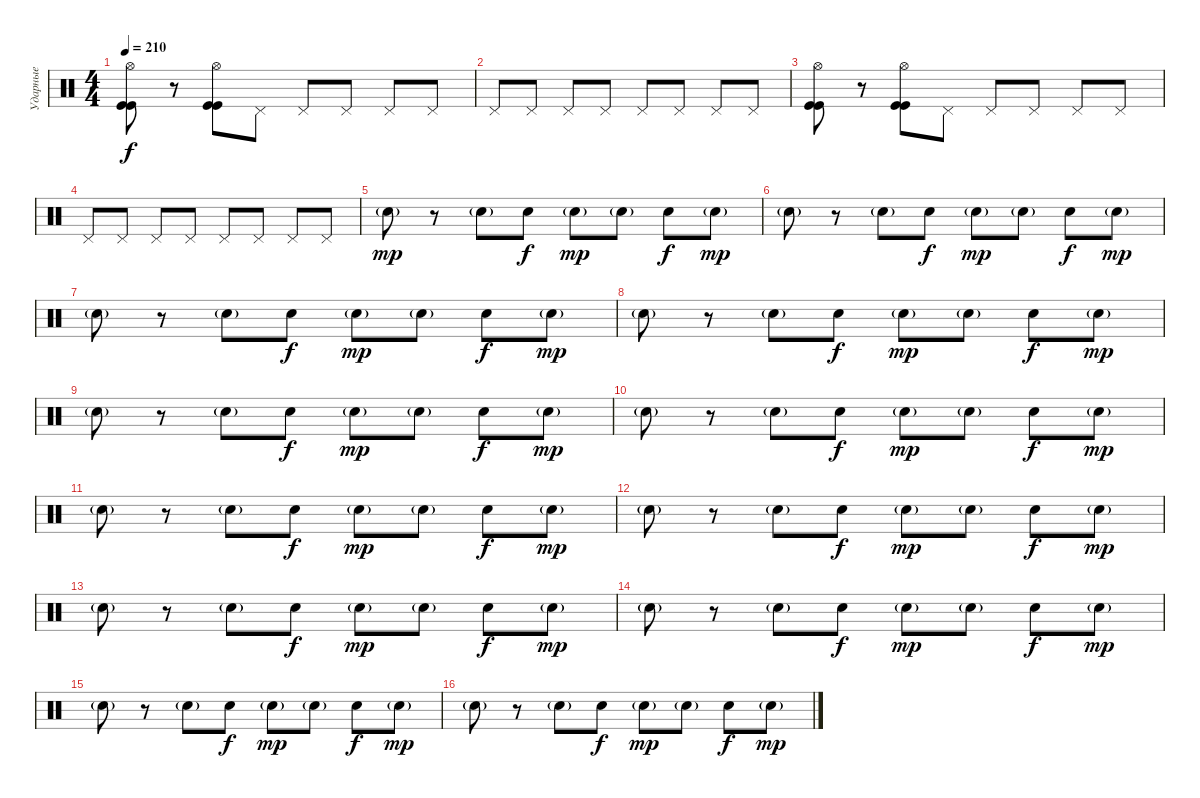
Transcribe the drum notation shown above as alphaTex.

\track ("Ударные" "Ударные") {instrument percussion}
\staff {score}
\articulation defaults
\ts (4 4)
\tempo 210
\clef neutral
\ks c
("Hi-Hat (open)" "Kick (hit)" "Kick (hit)").8{dy f} r.8 ("Hi-Hat (open)" "Kick (hit)" "Kick (hit)").8 "Pedal Hi-Hat (hit)".8 "Pedal Hi-Hat (hit)".8 "Pedal Hi-Hat (hit)".8 "Pedal Hi-Hat (hit)".8 "Pedal Hi-Hat (hit)".8 |
"Pedal Hi-Hat (hit)".8 "Pedal Hi-Hat (hit)".8 "Pedal Hi-Hat (hit)".8 "Pedal Hi-Hat (hit)".8 "Pedal Hi-Hat (hit)".8 "Pedal Hi-Hat (hit)".8 "Pedal Hi-Hat (hit)".8 "Pedal Hi-Hat (hit)".8 |
("Hi-Hat (open)" "Kick (hit)" "Kick (hit)").8 r.8 ("Hi-Hat (open)" "Kick (hit)" "Kick (hit)").8 "Pedal Hi-Hat (hit)".8 "Pedal Hi-Hat (hit)".8 "Pedal Hi-Hat (hit)".8 "Pedal Hi-Hat (hit)".8 "Pedal Hi-Hat (hit)".8 |
"Pedal Hi-Hat (hit)".8 "Pedal Hi-Hat (hit)".8 "Pedal Hi-Hat (hit)".8 "Pedal Hi-Hat (hit)".8 "Pedal Hi-Hat (hit)".8 "Pedal Hi-Hat (hit)".8 "Pedal Hi-Hat (hit)".8 "Pedal Hi-Hat (hit)".8 |
"Electric Snare (hit)"{g}.8{dy mp} r.8 "Electric Snare (hit)"{g}.8 "Electric Snare (hit)".8{dy f} "Electric Snare (hit)"{g}.8{dy mp} "Electric Snare (hit)"{g}.8 "Electric Snare (hit)".8{dy f} "Electric Snare (hit)"{g}.8{dy mp} |
"Electric Snare (hit)"{g}.8 r.8 "Electric Snare (hit)"{g}.8 "Electric Snare (hit)".8{dy f} "Electric Snare (hit)"{g}.8{dy mp} "Electric Snare (hit)"{g}.8 "Electric Snare (hit)".8{dy f} "Electric Snare (hit)"{g}.8{dy mp} |
"Electric Snare (hit)"{g}.8 r.8 "Electric Snare (hit)"{g}.8 "Electric Snare (hit)".8{dy f} "Electric Snare (hit)"{g}.8{dy mp} "Electric Snare (hit)"{g}.8 "Electric Snare (hit)".8{dy f} "Electric Snare (hit)"{g}.8{dy mp} |
"Electric Snare (hit)"{g}.8 r.8 "Electric Snare (hit)"{g}.8 "Electric Snare (hit)".8{dy f} "Electric Snare (hit)"{g}.8{dy mp} "Electric Snare (hit)"{g}.8 "Electric Snare (hit)".8{dy f} "Electric Snare (hit)"{g}.8{dy mp} |
"Electric Snare (hit)"{g}.8 r.8 "Electric Snare (hit)"{g}.8 "Electric Snare (hit)".8{dy f} "Electric Snare (hit)"{g}.8{dy mp} "Electric Snare (hit)"{g}.8 "Electric Snare (hit)".8{dy f} "Electric Snare (hit)"{g}.8{dy mp} |
"Electric Snare (hit)"{g}.8 r.8 "Electric Snare (hit)"{g}.8 "Electric Snare (hit)".8{dy f} "Electric Snare (hit)"{g}.8{dy mp} "Electric Snare (hit)"{g}.8 "Electric Snare (hit)".8{dy f} "Electric Snare (hit)"{g}.8{dy mp} |
"Electric Snare (hit)"{g}.8 r.8 "Electric Snare (hit)"{g}.8 "Electric Snare (hit)".8{dy f} "Electric Snare (hit)"{g}.8{dy mp} "Electric Snare (hit)"{g}.8 "Electric Snare (hit)".8{dy f} "Electric Snare (hit)"{g}.8{dy mp} |
"Electric Snare (hit)"{g}.8 r.8 "Electric Snare (hit)"{g}.8 "Electric Snare (hit)".8{dy f} "Electric Snare (hit)"{g}.8{dy mp} "Electric Snare (hit)"{g}.8 "Electric Snare (hit)".8{dy f} "Electric Snare (hit)"{g}.8{dy mp} |
"Electric Snare (hit)"{g}.8 r.8 "Electric Snare (hit)"{g}.8 "Electric Snare (hit)".8{dy f} "Electric Snare (hit)"{g}.8{dy mp} "Electric Snare (hit)"{g}.8 "Electric Snare (hit)".8{dy f} "Electric Snare (hit)"{g}.8{dy mp} |
"Electric Snare (hit)"{g}.8 r.8 "Electric Snare (hit)"{g}.8 "Electric Snare (hit)".8{dy f} "Electric Snare (hit)"{g}.8{dy mp} "Electric Snare (hit)"{g}.8 "Electric Snare (hit)".8{dy f} "Electric Snare (hit)"{g}.8{dy mp} |
"Electric Snare (hit)"{g}.8 r.8 "Electric Snare (hit)"{g}.8 "Electric Snare (hit)".8{dy f} "Electric Snare (hit)"{g}.8{dy mp} "Electric Snare (hit)"{g}.8 "Electric Snare (hit)".8{dy f} "Electric Snare (hit)"{g}.8{dy mp} |
"Electric Snare (hit)"{g}.8 r.8 "Electric Snare (hit)"{g}.8 "Electric Snare (hit)".8{dy f} "Electric Snare (hit)"{g}.8{dy mp} "Electric Snare (hit)"{g}.8 "Electric Snare (hit)".8{dy f} "Electric Snare (hit)"{g}.8{dy mp}
